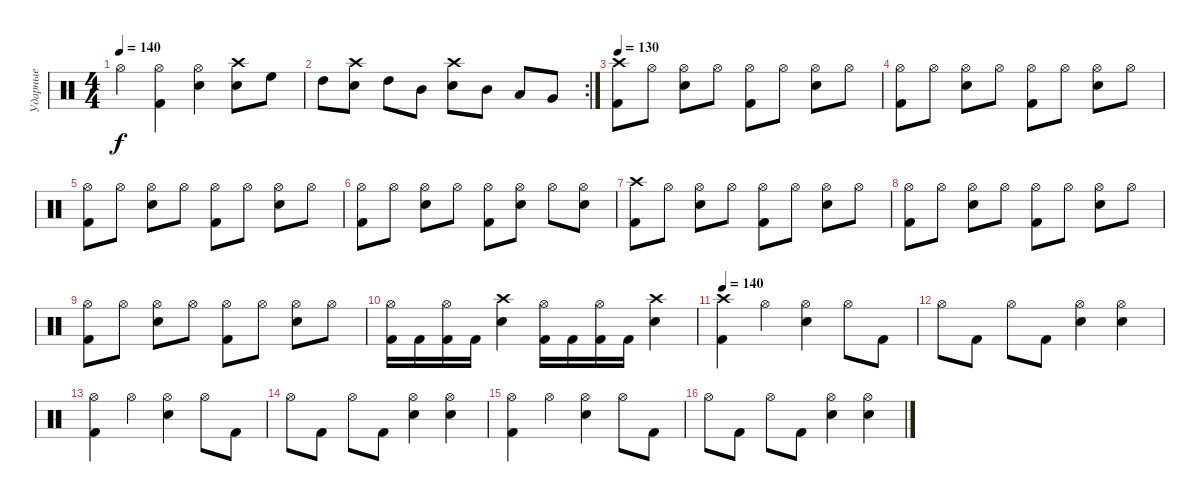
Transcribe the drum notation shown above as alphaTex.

\track ("Ударные" "Ударные") {instrument percussion}
\staff {score}
\articulation defaults
\ts (4 4)
\tempo 140
\clef neutral
\ks c "Hi-Hat (open)".4{dy f}
("Hi-Hat (open)" "Kick (hit) 2").4 ("Hi-Hat (open)" "Snare (hit) 2").4 ("Crash high (hit)" "Snare (hit) 2").8 "High Floor Tom (hit)".8 |
\rc 2 "High Tom (hit)".8
("Crash high (hit)" "Snare (hit) 2").8 "High Tom (hit)".8 "Mid Tom (hit)".8 ("Crash high (hit)" "Snare (hit) 2").8 "Mid Tom (hit)".8 "Low Tom (hit)".8 "Very Low Tom (hit)".8 |
\tempo 130
("Crash high (hit)" "Kick (hit) 2").8 "Hi-Hat (open)".8 ("Hi-Hat (open)" "Snare (hit) 2").8 "Hi-Hat (open)".8 ("Hi-Hat (open)" "Kick (hit) 2").8 "Hi-Hat (open)".8 ("Hi-Hat (open)" "Snare (hit) 2").8 "Hi-Hat (open)".8 |
("Hi-Hat (open)" "Kick (hit) 2").8 "Hi-Hat (open)".8 ("Hi-Hat (open)" "Snare (hit) 2").8 "Hi-Hat (open)".8 ("Hi-Hat (open)" "Kick (hit) 2").8 "Hi-Hat (open)".8 ("Hi-Hat (open)" "Snare (hit) 2").8 "Hi-Hat (open)".8 |
("Hi-Hat (open)" "Kick (hit) 2").8 "Hi-Hat (open)".8 ("Hi-Hat (open)" "Snare (hit) 2").8 "Hi-Hat (open)".8 ("Hi-Hat (open)" "Kick (hit) 2").8 "Hi-Hat (open)".8 ("Hi-Hat (open)" "Snare (hit) 2").8 "Hi-Hat (open)".8 |
("Hi-Hat (open)" "Kick (hit) 2").8 "Hi-Hat (open)".8 ("Hi-Hat (open)" "Snare (hit) 2").8 "Hi-Hat (open)".8 ("Hi-Hat (open)" "Kick (hit) 2").8 ("Hi-Hat (open)" "Snare (hit) 2").8 "Hi-Hat (open)".8 ("Hi-Hat (open)" "Snare (hit) 2").8 |
("Crash high (hit)" "Kick (hit) 2").8 "Hi-Hat (open)".8 ("Hi-Hat (open)" "Snare (hit) 2").8 "Hi-Hat (open)".8 ("Hi-Hat (open)" "Kick (hit) 2").8 "Hi-Hat (open)".8 ("Hi-Hat (open)" "Snare (hit) 2").8 "Hi-Hat (open)".8 |
("Hi-Hat (open)" "Kick (hit) 2").8 "Hi-Hat (open)".8 ("Hi-Hat (open)" "Snare (hit) 2").8 "Hi-Hat (open)".8 ("Hi-Hat (open)" "Kick (hit) 2").8 "Hi-Hat (open)".8 ("Hi-Hat (open)" "Snare (hit) 2").8 "Hi-Hat (open)".8 |
("Hi-Hat (open)" "Kick (hit) 2").8 "Hi-Hat (open)".8 ("Hi-Hat (open)" "Snare (hit) 2").8 "Hi-Hat (open)".8 ("Hi-Hat (open)" "Kick (hit) 2").8 "Hi-Hat (open)".8 ("Hi-Hat (open)" "Snare (hit) 2").8 "Hi-Hat (open)".8 |
("Hi-Hat (open)" "Kick (hit) 2").16 "Kick (hit) 2".16 ("Hi-Hat (open)" "Kick (hit) 2").16 "Kick (hit) 2".16 ("Crash high (hit)" "Snare (hit) 2").4 ("Hi-Hat (open)" "Kick (hit) 2").16 "Kick (hit) 2".16 ("Hi-Hat (open)" "Kick (hit) 2").16 "Kick (hit) 2".16 ("Crash high (hit)" "Snare (hit) 2").4 |
\tempo 140
("Crash high (hit)" "Kick (hit) 2").4 "Hi-Hat (open)".4 ("Hi-Hat (open)" "Snare (hit) 2").4 "Hi-Hat (open)".8 "Kick (hit) 2".8 |
"Hi-Hat (open)".8 "Kick (hit) 2".8 "Hi-Hat (open)".8 "Kick (hit) 2".8 ("Hi-Hat (open)" "Snare (hit) 2").4 ("Hi-Hat (open)" "Snare (hit) 2").4 |
("Hi-Hat (open)" "Kick (hit) 2").4 "Hi-Hat (open)".4 ("Hi-Hat (open)" "Snare (hit) 2").4 "Hi-Hat (open)".8 "Kick (hit) 2".8 |
"Hi-Hat (open)".8 "Kick (hit) 2".8 "Hi-Hat (open)".8 "Kick (hit) 2".8 ("Hi-Hat (open)" "Snare (hit) 2").4 ("Hi-Hat (open)" "Snare (hit) 2").4 |
("Hi-Hat (open)" "Kick (hit) 2").4 "Hi-Hat (open)".4 ("Hi-Hat (open)" "Snare (hit) 2").4 "Hi-Hat (open)".8 "Kick (hit) 2".8 |
"Hi-Hat (open)".8 "Kick (hit) 2".8 "Hi-Hat (open)".8 "Kick (hit) 2".8 ("Hi-Hat (open)" "Snare (hit) 2").4 ("Hi-Hat (open)" "Snare (hit) 2").4
